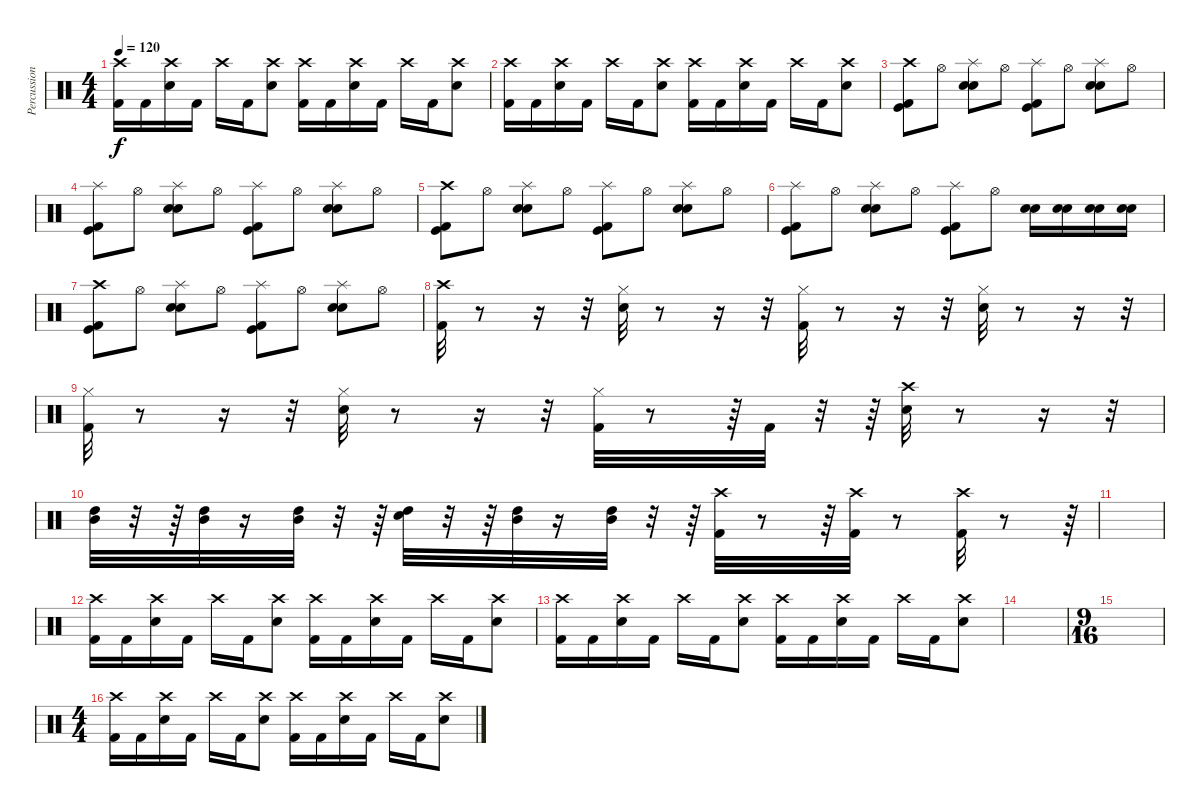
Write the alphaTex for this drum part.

\track ("Percussion" "Percussion") {instrument percussion}
\staff {score}
\articulation defaults
\ts (4 4)
\tempo 120
\clef neutral
\ks c
("Kick (hit) 2" "Crash high (hit)").16{dy f} "Kick (hit) 2".16 ("Electric Snare (hit)" "Crash high (hit)").16 "Kick (hit) 2".16 "Crash high (hit)".16 "Kick (hit) 2".16 ("Electric Snare (hit)" "Crash high (hit)").8 ("Kick (hit) 2" "Crash high (hit)").16 "Kick (hit) 2".16 ("Electric Snare (hit)" "Crash high (hit)").16 "Kick (hit) 2".16 "Crash high (hit)".16 "Kick (hit) 2".16 ("Electric Snare (hit)" "Crash high (hit)").8 |
("Kick (hit) 2" "Crash high (hit)").16 "Kick (hit) 2".16 ("Electric Snare (hit)" "Crash high (hit)").16 "Kick (hit) 2".16 "Crash high (hit)".16 "Kick (hit) 2".16 ("Electric Snare (hit)" "Crash high (hit)").8 ("Kick (hit) 2" "Crash high (hit)").16 "Kick (hit) 2".16 ("Electric Snare (hit)" "Crash high (hit)").16 "Kick (hit) 2".16 "Crash high (hit)".16 "Kick (hit) 2".16 ("Electric Snare (hit)" "Crash high (hit)").8 |
("Crash high (hit)" "Kick (hit) 2" "Kick (hit)").8 "Hi-Hat (open)".8 ("Splash (hit)" "Electric Snare (hit)" "Snare (hit) 2").8 "Hi-Hat (open)".8 ("Splash (hit)" "Kick (hit) 2" "Kick (hit)").8 "Hi-Hat (open)".8 ("Splash (hit)" "Electric Snare (hit)" "Snare (hit) 2").8 "Hi-Hat (open)".8 |
("Splash (hit)" "Kick (hit) 2" "Kick (hit)").8 "Hi-Hat (open)".8 ("Splash (hit)" "Electric Snare (hit)" "Snare (hit) 2").8 "Hi-Hat (open)".8 ("Splash (hit)" "Kick (hit) 2" "Kick (hit)").8 "Hi-Hat (open)".8 ("Splash (hit)" "Electric Snare (hit)" "Snare (hit) 2").8 "Hi-Hat (open)".8 |
("Crash high (hit)" "Kick (hit) 2" "Kick (hit)").8 "Hi-Hat (open)".8 ("Splash (hit)" "Electric Snare (hit)" "Snare (hit) 2").8 "Hi-Hat (open)".8 ("Splash (hit)" "Kick (hit) 2" "Kick (hit)").8 "Hi-Hat (open)".8 ("Splash (hit)" "Electric Snare (hit)" "Snare (hit) 2").8 "Hi-Hat (open)".8 |
("Splash (hit)" "Kick (hit) 2" "Kick (hit)").8 "Hi-Hat (open)".8 ("Splash (hit)" "Electric Snare (hit)" "Snare (hit) 2").8 "Hi-Hat (open)".8 ("Splash (hit)" "Kick (hit) 2" "Kick (hit)").8 "Hi-Hat (open)".8 ("Electric Snare (hit)" "Snare (hit) 2").16 ("Electric Snare (hit)" "Snare (hit) 2").16 ("Electric Snare (hit)" "Snare (hit) 2").16 ("Electric Snare (hit)" "Snare (hit) 2").16 |
("Crash high (hit)" "Kick (hit) 2" "Kick (hit)").8 "Hi-Hat (open)".8 ("Splash (hit)" "Electric Snare (hit)" "Snare (hit) 2").8 "Hi-Hat (open)".8 ("Splash (hit)" "Kick (hit) 2" "Kick (hit)").8 "Hi-Hat (open)".8 ("Splash (hit)" "Electric Snare (hit)" "Snare (hit) 2").8 "Hi-Hat (open)".8 |
("Kick (hit) 2" "Crash high (hit)").32 r.8 r.16 r.32 ("Snare (hit) 2" "Hi-Hat (closed)").32 r.8 r.16 r.32 ("Kick (hit) 2" "Hi-Hat (closed)").32 r.8 r.16 r.32 ("Snare (hit) 2" "Hi-Hat (closed)").32 r.8 r.16 r.32 |
("Hi-Hat (closed)" "Kick (hit) 2").32 r.8 r.16 r.32 ("Snare (hit) 2" "Hi-Hat (closed)").32 r.8 r.16 r.32 ("Kick (hit) 2" "Hi-Hat (closed)").32 r.8 r.64 "Kick (hit) 2".32 r.32 r.64 ("Snare (hit) 2" "Crash high (hit)").32 r.8 r.16 r.32 |
("High Tom (hit)" "Mid Tom (hit)").32 r.32 r.64 ("High Tom (hit)" "Mid Tom (hit)").32 r.16 ("High Tom (hit)" "Mid Tom (hit)").32 r.32 r.64 ("Snare (hit) 2" "High Tom (hit)").32 r.32 r.64 ("High Tom (hit)" "Mid Tom (hit)").32 r.16 ("High Tom (hit)" "Mid Tom (hit)").32 r.32 r.64 ("Kick (hit) 2" "Crash high (hit)").32 r.8 r.64 ("Kick (hit) 2" "Crash high (hit)").32 r.8 ("Kick (hit) 2" "Crash high (hit)").32 r.8 r.64 |
|
("Kick (hit) 2" "Crash high (hit)").16 "Kick (hit) 2".16 ("Electric Snare (hit)" "Crash high (hit)").16 "Kick (hit) 2".16 "Crash high (hit)".16 "Kick (hit) 2".16 ("Electric Snare (hit)" "Crash high (hit)").8 ("Kick (hit) 2" "Crash high (hit)").16 "Kick (hit) 2".16 ("Electric Snare (hit)" "Crash high (hit)").16 "Kick (hit) 2".16 "Crash high (hit)".16 "Kick (hit) 2".16 ("Electric Snare (hit)" "Crash high (hit)").8 |
("Kick (hit) 2" "Crash high (hit)").16 "Kick (hit) 2".16 ("Electric Snare (hit)" "Crash high (hit)").16 "Kick (hit) 2".16 "Crash high (hit)".16 "Kick (hit) 2".16 ("Electric Snare (hit)" "Crash high (hit)").8 ("Kick (hit) 2" "Crash high (hit)").16 "Kick (hit) 2".16 ("Electric Snare (hit)" "Crash high (hit)").16 "Kick (hit) 2".16 "Crash high (hit)".16 "Kick (hit) 2".16 ("Electric Snare (hit)" "Crash high (hit)").8 |
|
\ts (9 16)
|
\ts (4 4)
("Kick (hit) 2" "Crash high (hit)").16 "Kick (hit) 2".16 ("Electric Snare (hit)" "Crash high (hit)").16 "Kick (hit) 2".16 "Crash high (hit)".16 "Kick (hit) 2".16 ("Electric Snare (hit)" "Crash high (hit)").8 ("Kick (hit) 2" "Crash high (hit)").16 "Kick (hit) 2".16 ("Electric Snare (hit)" "Crash high (hit)").16 "Kick (hit) 2".16 "Crash high (hit)".16 "Kick (hit) 2".16 ("Electric Snare (hit)" "Crash high (hit)").8
